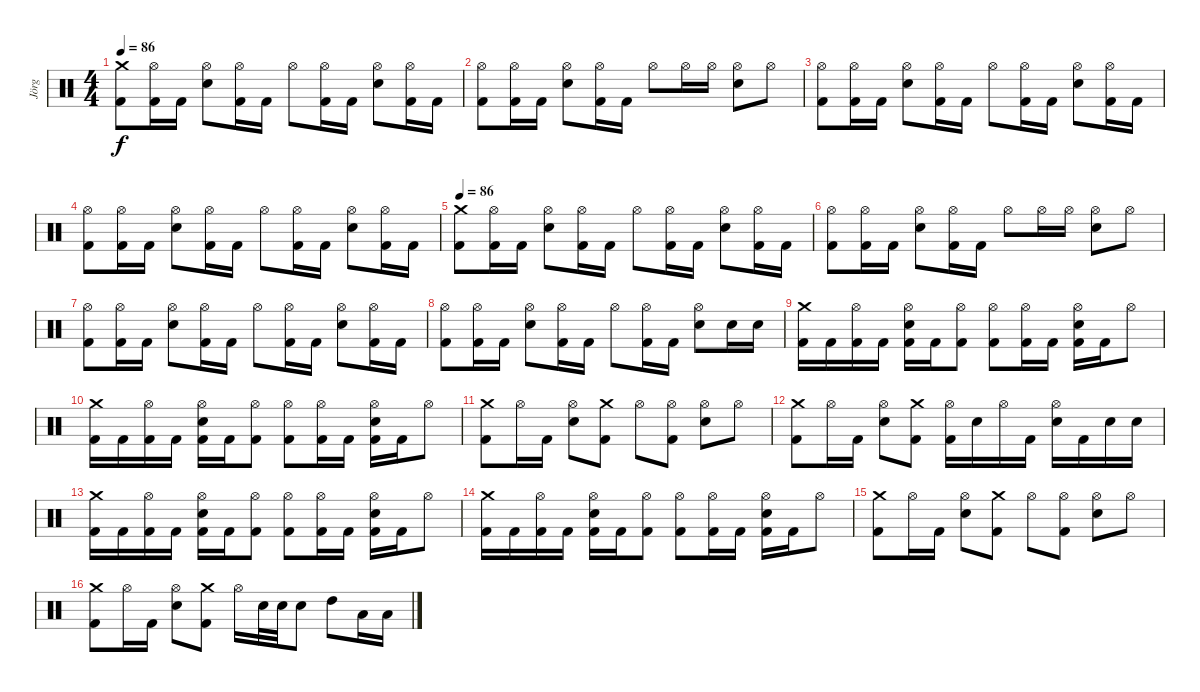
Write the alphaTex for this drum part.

\track ("Jörg" "Jörg") {instrument percussion}
\staff {score}
\articulation defaults
\ts (4 4)
\tempo 86
\clef neutral
\ks c
("Kick (hit) 2" "Crash medium (hit)").8{dy f} ("Kick (hit) 2" "Hi-Hat (open)").16 "Kick (hit) 2".16 ("Snare (hit) 2" "Hi-Hat (open)").8 ("Kick (hit) 2" "Hi-Hat (open)").16 "Kick (hit) 2".16 "Hi-Hat (open)".8 ("Kick (hit) 2" "Hi-Hat (open)").16 "Kick (hit) 2".16 ("Snare (hit) 2" "Hi-Hat (open)").8 ("Kick (hit) 2" "Hi-Hat (open)").16 "Kick (hit) 2".16 |
("Kick (hit) 2" "Hi-Hat (open)").8 ("Kick (hit) 2" "Hi-Hat (open)").16 "Kick (hit) 2".16 ("Snare (hit) 2" "Hi-Hat (open)").8 ("Kick (hit) 2" "Hi-Hat (open)").16 "Kick (hit) 2".16 "Hi-Hat (open)".8 "Hi-Hat (open)".16 "Hi-Hat (open)".16 ("Snare (hit) 2" "Hi-Hat (open)").8 "Hi-Hat (open)".8 |
("Kick (hit) 2" "Hi-Hat (open)").8 ("Kick (hit) 2" "Hi-Hat (open)").16 "Kick (hit) 2".16 ("Snare (hit) 2" "Hi-Hat (open)").8 ("Kick (hit) 2" "Hi-Hat (open)").16 "Kick (hit) 2".16 "Hi-Hat (open)".8 ("Kick (hit) 2" "Hi-Hat (open)").16 "Kick (hit) 2".16 ("Snare (hit) 2" "Hi-Hat (open)").8 ("Kick (hit) 2" "Hi-Hat (open)").16 "Kick (hit) 2".16 |
("Kick (hit) 2" "Hi-Hat (open)").8 ("Kick (hit) 2" "Hi-Hat (open)").16 "Kick (hit) 2".16 ("Snare (hit) 2" "Hi-Hat (open)").8 ("Kick (hit) 2" "Hi-Hat (open)").16 "Kick (hit) 2".16 "Hi-Hat (open)".8 ("Kick (hit) 2" "Hi-Hat (open)").16 "Kick (hit) 2".16 ("Snare (hit) 2" "Hi-Hat (open)").8 ("Kick (hit) 2" "Hi-Hat (open)").16 "Kick (hit) 2".16 |
\tempo 86
("Crash medium (hit)" "Kick (hit) 2").8 ("Kick (hit) 2" "Hi-Hat (open)").16 "Kick (hit) 2".16 ("Snare (hit) 2" "Hi-Hat (open)").8 ("Kick (hit) 2" "Hi-Hat (open)").16 "Kick (hit) 2".16 "Hi-Hat (open)".8 ("Kick (hit) 2" "Hi-Hat (open)").16 "Kick (hit) 2".16 ("Snare (hit) 2" "Hi-Hat (open)").8 ("Kick (hit) 2" "Hi-Hat (open)").16 "Kick (hit) 2".16 |
("Kick (hit) 2" "Hi-Hat (open)").8 ("Kick (hit) 2" "Hi-Hat (open)").16 "Kick (hit) 2".16 ("Snare (hit) 2" "Hi-Hat (open)").8 ("Kick (hit) 2" "Hi-Hat (open)").16 "Kick (hit) 2".16 "Hi-Hat (open)".8 "Hi-Hat (open)".16 "Hi-Hat (open)".16 ("Snare (hit) 2" "Hi-Hat (open)").8 "Hi-Hat (open)".8 |
("Kick (hit) 2" "Hi-Hat (open)").8 ("Kick (hit) 2" "Hi-Hat (open)").16 "Kick (hit) 2".16 ("Snare (hit) 2" "Hi-Hat (open)").8 ("Kick (hit) 2" "Hi-Hat (open)").16 "Kick (hit) 2".16 "Hi-Hat (open)".8 ("Kick (hit) 2" "Hi-Hat (open)").16 "Kick (hit) 2".16 ("Snare (hit) 2" "Hi-Hat (open)").8 ("Kick (hit) 2" "Hi-Hat (open)").16 "Kick (hit) 2".16 |
("Kick (hit) 2" "Hi-Hat (open)").8 ("Kick (hit) 2" "Hi-Hat (open)").16 "Kick (hit) 2".16 ("Snare (hit) 2" "Hi-Hat (open)").8 ("Kick (hit) 2" "Hi-Hat (open)").16 "Kick (hit) 2".16 "Hi-Hat (open)".8 ("Kick (hit) 2" "Hi-Hat (open)").16 "Kick (hit) 2".16 ("Snare (hit) 2" "Hi-Hat (open)").8 "Snare (hit) 2".16 "Snare (hit) 2".16 |
("Kick (hit) 2" "Crash medium (hit)").16 "Kick (hit) 2".16 ("Kick (hit) 2" "Hi-Hat (open)").16 "Kick (hit) 2".16 ("Kick (hit) 2" "Snare (hit) 2" "Hi-Hat (open)").16 "Kick (hit) 2".16 ("Kick (hit) 2" "Hi-Hat (open)").8 ("Kick (hit) 2" "Hi-Hat (open)").8 ("Kick (hit) 2" "Hi-Hat (open)").16 "Kick (hit) 2".16 ("Kick (hit) 2" "Snare (hit) 2" "Hi-Hat (open)").16 "Kick (hit) 2".16 "Hi-Hat (open)".8 |
("Kick (hit) 2" "Crash medium (hit)").16 "Kick (hit) 2".16 ("Kick (hit) 2" "Hi-Hat (open)").16 "Kick (hit) 2".16 ("Kick (hit) 2" "Snare (hit) 2" "Hi-Hat (open)").16 "Kick (hit) 2".16 ("Kick (hit) 2" "Hi-Hat (open)").8 ("Kick (hit) 2" "Hi-Hat (open)").8 ("Kick (hit) 2" "Hi-Hat (open)").16 "Kick (hit) 2".16 ("Kick (hit) 2" "Snare (hit) 2" "Hi-Hat (open)").16 "Kick (hit) 2".16 "Hi-Hat (open)".8 |
("Kick (hit) 2" "Crash medium (hit)").8 "Hi-Hat (open)".16 "Kick (hit) 2".16 ("Snare (hit) 2" "Hi-Hat (open)").8 ("Kick (hit) 2" "Crash medium (hit)").8 "Hi-Hat (open)".8 ("Kick (hit) 2" "Hi-Hat (open)").8 ("Snare (hit) 2" "Hi-Hat (open)").8 "Hi-Hat (open)".8 |
("Kick (hit) 2" "Crash medium (hit)").8 "Hi-Hat (open)".16 "Kick (hit) 2".16 ("Snare (hit) 2" "Hi-Hat (open)").8 ("Kick (hit) 2" "Crash medium (hit)").8 ("Kick (hit) 2" "Hi-Hat (open)").16 "Snare (hit) 2".16 "Hi-Hat (open)".16 "Kick (hit) 2".16 ("Snare (hit) 2" "Hi-Hat (open)").16 "Kick (hit) 2".16 "Snare (hit) 2".16 "Snare (hit) 2".16 |
("Kick (hit) 2" "Crash medium (hit)").16 "Kick (hit) 2".16 ("Kick (hit) 2" "Hi-Hat (open)").16 "Kick (hit) 2".16 ("Kick (hit) 2" "Snare (hit) 2" "Hi-Hat (open)").16 "Kick (hit) 2".16 ("Kick (hit) 2" "Hi-Hat (open)").8 ("Kick (hit) 2" "Hi-Hat (open)").8 ("Kick (hit) 2" "Hi-Hat (open)").16 "Kick (hit) 2".16 ("Kick (hit) 2" "Snare (hit) 2" "Hi-Hat (open)").16 "Kick (hit) 2".16 "Hi-Hat (open)".8 |
("Kick (hit) 2" "Crash medium (hit)").16 "Kick (hit) 2".16 ("Kick (hit) 2" "Hi-Hat (open)").16 "Kick (hit) 2".16 ("Kick (hit) 2" "Snare (hit) 2" "Hi-Hat (open)").16 "Kick (hit) 2".16 ("Kick (hit) 2" "Hi-Hat (open)").8 ("Kick (hit) 2" "Hi-Hat (open)").8 ("Kick (hit) 2" "Hi-Hat (open)").16 "Kick (hit) 2".16 ("Kick (hit) 2" "Snare (hit) 2" "Hi-Hat (open)").16 "Kick (hit) 2".16 "Hi-Hat (open)".8 |
("Kick (hit) 2" "Crash medium (hit)").8 "Hi-Hat (open)".16 "Kick (hit) 2".16 ("Snare (hit) 2" "Hi-Hat (open)").8 ("Kick (hit) 2" "Crash medium (hit)").8 "Hi-Hat (open)".8 ("Kick (hit) 2" "Hi-Hat (open)").8 ("Snare (hit) 2" "Hi-Hat (open)").8 "Hi-Hat (open)".8 |
("Kick (hit) 2" "Crash medium (hit)").8 "Hi-Hat (open)".16 "Kick (hit) 2".16 ("Snare (hit) 2" "Hi-Hat (open)").8 ("Kick (hit) 2" "Crash medium (hit)").8 "Hi-Hat (open)".16 "Snare (hit) 2".32 "Snare (hit) 2".32 "Snare (hit) 2".8 "High Tom (hit)".8 "Low Tom (hit)".16 "Low Tom (hit)".16
